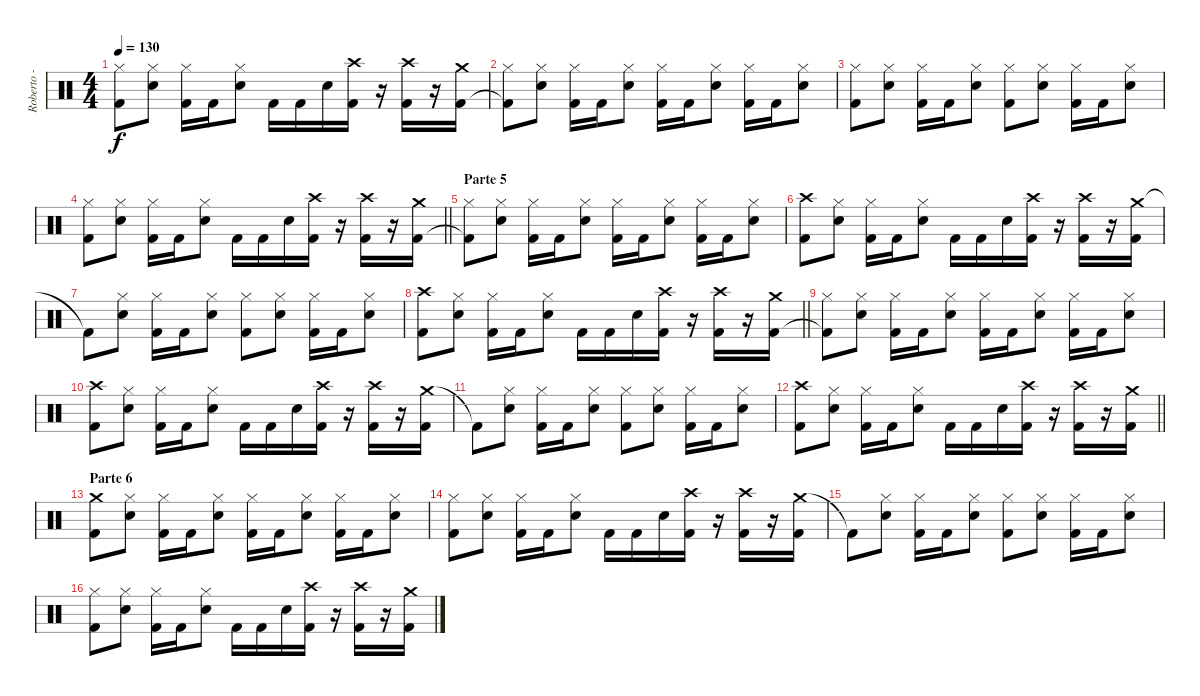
\track ("Roberto - Bateria" "Roberto - ") {instrument percussion}
\staff {score}
\articulation defaults
\ts (4 4)
\tempo 130
\clef neutral
\ks c
("Hi-Hat (closed)" "Kick (hit) 2"{t}).8{dy f} ("Hi-Hat (closed)" "Snare (hit) 2").8 ("Hi-Hat (closed)" "Kick (hit) 2").16 "Kick (hit) 2".16 ("Hi-Hat (closed)" "Snare (hit) 2").8 "Kick (hit) 2".16 "Kick (hit) 2".16 "Snare (hit) 2".16 ("Crash high (hit)" "Kick (hit) 2").16 r.16 ("Crash high (hit)" "Kick (hit) 2").16 r.16 ("Crash medium (hit)" "Kick (hit) 2").16 |
("Hi-Hat (closed)" "Kick (hit) 2"{t}).8 ("Hi-Hat (closed)" "Snare (hit) 2").8 ("Hi-Hat (closed)" "Kick (hit) 2").16 "Kick (hit) 2".16 ("Hi-Hat (closed)" "Snare (hit) 2").8 ("Hi-Hat (closed)" "Kick (hit) 2").16 "Kick (hit) 2".16 ("Hi-Hat (closed)" "Snare (hit) 2").8 ("Hi-Hat (closed)" "Kick (hit) 2").16 "Kick (hit) 2".16 ("Hi-Hat (closed)" "Snare (hit) 2").8 |
("Hi-Hat (closed)" "Kick (hit) 2").8 ("Hi-Hat (closed)" "Snare (hit) 2").8 ("Hi-Hat (closed)" "Kick (hit) 2").16 "Kick (hit) 2".16 ("Hi-Hat (closed)" "Snare (hit) 2").8 ("Hi-Hat (closed)" "Kick (hit) 2").8 ("Hi-Hat (closed)" "Snare (hit) 2").8 ("Hi-Hat (closed)" "Kick (hit) 2").16 "Kick (hit) 2".16 ("Hi-Hat (closed)" "Snare (hit) 2").8 |
\barLineRight lightlight
("Hi-Hat (closed)" "Kick (hit) 2").8 ("Hi-Hat (closed)" "Snare (hit) 2").8 ("Hi-Hat (closed)" "Kick (hit) 2").16 "Kick (hit) 2".16 ("Hi-Hat (closed)" "Snare (hit) 2").8 "Kick (hit) 2".16 "Kick (hit) 2".16 "Snare (hit) 2".16 ("Crash high (hit)" "Kick (hit) 2").16 r.16 ("Crash high (hit)" "Kick (hit) 2").16 r.16 ("Crash medium (hit)" "Kick (hit) 2").16 |
\section ("" "Parte 5")
("Hi-Hat (closed)" "Kick (hit) 2"{t}).8 ("Hi-Hat (closed)" "Snare (hit) 2").8 ("Hi-Hat (closed)" "Kick (hit) 2").16 "Kick (hit) 2".16 ("Hi-Hat (closed)" "Snare (hit) 2").8 ("Hi-Hat (closed)" "Kick (hit) 2").16 "Kick (hit) 2".16 ("Hi-Hat (closed)" "Snare (hit) 2").8 ("Hi-Hat (closed)" "Kick (hit) 2").16 "Kick (hit) 2".16 ("Hi-Hat (closed)" "Snare (hit) 2").8 |
("Crash high (hit)" "Kick (hit) 2").8 ("Hi-Hat (closed)" "Snare (hit) 2").8 ("Hi-Hat (closed)" "Kick (hit) 2").16 "Kick (hit) 2".16 ("Hi-Hat (closed)" "Snare (hit) 2").8 "Kick (hit) 2".16 "Kick (hit) 2".16 "Snare (hit) 2".16 ("Crash high (hit)" "Kick (hit) 2").16 r.16 ("Crash high (hit)" "Kick (hit) 2").16 r.16 ("Crash medium (hit)" "Kick (hit) 2").16 |
"Kick (hit) 2"{t}.8 ("Hi-Hat (closed)" "Snare (hit) 2").8 ("Hi-Hat (closed)" "Kick (hit) 2").16 "Kick (hit) 2".16 ("Hi-Hat (closed)" "Snare (hit) 2").8 ("Hi-Hat (closed)" "Kick (hit) 2").8 ("Hi-Hat (closed)" "Snare (hit) 2").8 ("Hi-Hat (closed)" "Kick (hit) 2").16 "Kick (hit) 2".16 ("Hi-Hat (closed)" "Snare (hit) 2").8 |
\barLineRight lightlight
("Crash high (hit)" "Kick (hit) 2").8 ("Hi-Hat (closed)" "Snare (hit) 2").8 ("Hi-Hat (closed)" "Kick (hit) 2").16 "Kick (hit) 2".16 ("Hi-Hat (closed)" "Snare (hit) 2").8 "Kick (hit) 2".16 "Kick (hit) 2".16 "Snare (hit) 2".16 ("Crash high (hit)" "Kick (hit) 2").16 r.16 ("Crash high (hit)" "Kick (hit) 2").16 r.16 ("Crash medium (hit)" "Kick (hit) 2").16 |
("Hi-Hat (closed)" "Kick (hit) 2"{t}).8 ("Hi-Hat (closed)" "Snare (hit) 2").8 ("Hi-Hat (closed)" "Kick (hit) 2").16 "Kick (hit) 2".16 ("Hi-Hat (closed)" "Snare (hit) 2").8 ("Hi-Hat (closed)" "Kick (hit) 2").16 "Kick (hit) 2".16 ("Hi-Hat (closed)" "Snare (hit) 2").8 ("Hi-Hat (closed)" "Kick (hit) 2").16 "Kick (hit) 2".16 ("Hi-Hat (closed)" "Snare (hit) 2").8 |
("Crash high (hit)" "Kick (hit) 2").8 ("Hi-Hat (closed)" "Snare (hit) 2").8 ("Hi-Hat (closed)" "Kick (hit) 2").16 "Kick (hit) 2".16 ("Hi-Hat (closed)" "Snare (hit) 2").8 "Kick (hit) 2".16 "Kick (hit) 2".16 "Snare (hit) 2".16 ("Crash high (hit)" "Kick (hit) 2").16 r.16 ("Crash high (hit)" "Kick (hit) 2").16 r.16 ("Crash medium (hit)" "Kick (hit) 2").16 |
"Kick (hit) 2"{t}.8 ("Hi-Hat (closed)" "Snare (hit) 2").8 ("Hi-Hat (closed)" "Kick (hit) 2").16 "Kick (hit) 2".16 ("Hi-Hat (closed)" "Snare (hit) 2").8 ("Hi-Hat (closed)" "Kick (hit) 2").8 ("Hi-Hat (closed)" "Snare (hit) 2").8 ("Hi-Hat (closed)" "Kick (hit) 2").16 "Kick (hit) 2".16 ("Hi-Hat (closed)" "Snare (hit) 2").8 |
\barLineRight lightlight
("Crash high (hit)" "Kick (hit) 2").8 ("Hi-Hat (closed)" "Snare (hit) 2").8 ("Hi-Hat (closed)" "Kick (hit) 2").16 "Kick (hit) 2".16 ("Hi-Hat (closed)" "Snare (hit) 2").8 "Kick (hit) 2".16 "Kick (hit) 2".16 "Snare (hit) 2".16 ("Crash high (hit)" "Kick (hit) 2").16 r.16 ("Crash high (hit)" "Kick (hit) 2").16 r.16 ("Crash medium (hit)" "Kick (hit) 2").16 |
\section ("" "Parte 6")
("Crash medium (hit)" "Kick (hit) 2").8 ("Hi-Hat (closed)" "Snare (hit) 2").8 ("Hi-Hat (closed)" "Kick (hit) 2").16 "Kick (hit) 2".16 ("Hi-Hat (closed)" "Snare (hit) 2").8 ("Hi-Hat (closed)" "Kick (hit) 2").16 "Kick (hit) 2".16 ("Hi-Hat (closed)" "Snare (hit) 2").8 ("Hi-Hat (closed)" "Kick (hit) 2").16 "Kick (hit) 2".16 ("Hi-Hat (closed)" "Snare (hit) 2").8 |
("Hi-Hat (closed)" "Kick (hit) 2").8 ("Hi-Hat (closed)" "Snare (hit) 2").8 ("Hi-Hat (closed)" "Kick (hit) 2").16 "Kick (hit) 2".16 ("Hi-Hat (closed)" "Snare (hit) 2").8 "Kick (hit) 2".16 "Kick (hit) 2".16 "Snare (hit) 2".16 ("Crash high (hit)" "Kick (hit) 2").16 r.16 ("Crash high (hit)" "Kick (hit) 2").16 r.16 ("Crash medium (hit)" "Kick (hit) 2").16 |
"Kick (hit) 2"{t}.8 ("Hi-Hat (closed)" "Snare (hit) 2").8 ("Hi-Hat (closed)" "Kick (hit) 2").16 "Kick (hit) 2".16 ("Hi-Hat (closed)" "Snare (hit) 2").8 ("Hi-Hat (closed)" "Kick (hit) 2").8 ("Hi-Hat (closed)" "Snare (hit) 2").8 ("Hi-Hat (closed)" "Kick (hit) 2").16 "Kick (hit) 2".16 ("Hi-Hat (closed)" "Snare (hit) 2").8 |
("Hi-Hat (closed)" "Kick (hit) 2").8 ("Hi-Hat (closed)" "Snare (hit) 2").8 ("Hi-Hat (closed)" "Kick (hit) 2").16 "Kick (hit) 2".16 ("Hi-Hat (closed)" "Snare (hit) 2").8 "Kick (hit) 2".16 "Kick (hit) 2".16 "Snare (hit) 2".16 ("Crash high (hit)" "Kick (hit) 2").16 r.16 ("Crash high (hit)" "Kick (hit) 2").16 r.16 ("Crash medium (hit)" "Kick (hit) 2").16
